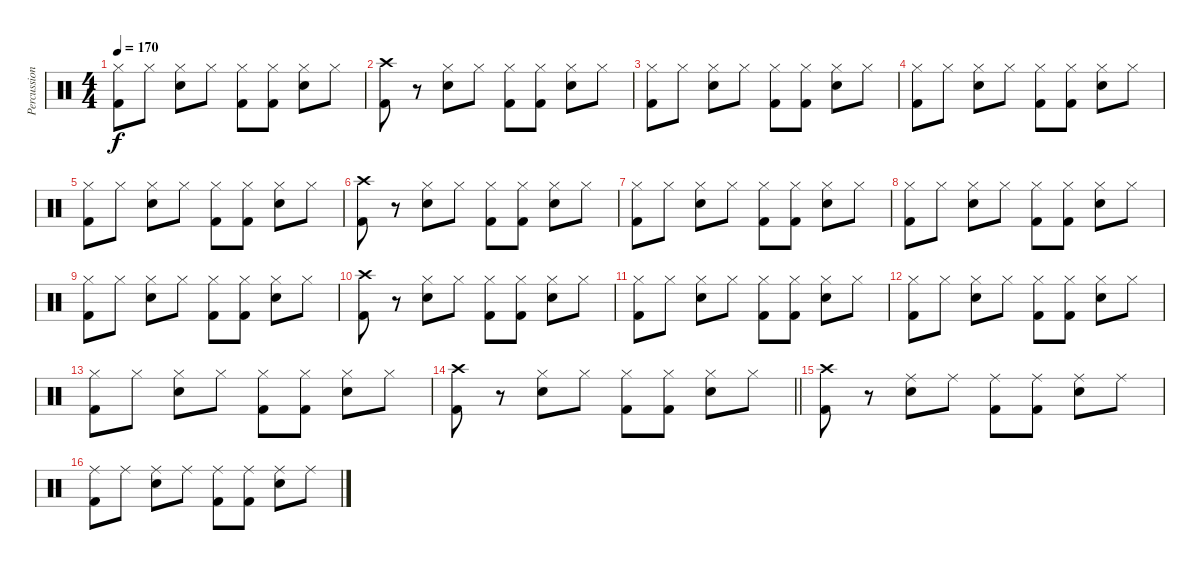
\track ("Percussion" "Percussion") {instrument percussion}
\staff {score}
\articulation defaults
\ts (4 4)
\tempo 170
\clef neutral
\ks c
("Hi-Hat (closed)" "Kick (hit) 2").8{dy f} "Hi-Hat (closed)".8 ("Hi-Hat (closed)" "Snare (hit) 2").8 "Hi-Hat (closed)".8 ("Hi-Hat (closed)" "Kick (hit) 2").8 ("Hi-Hat (closed)" "Kick (hit) 2").8 ("Hi-Hat (closed)" "Snare (hit) 2").8 "Hi-Hat (closed)".8 |
("Crash high (hit)" "Kick (hit) 2").8 r.8 ("Hi-Hat (closed)" "Snare (hit) 2").8 "Hi-Hat (closed)".8 ("Hi-Hat (closed)" "Kick (hit) 2").8 ("Hi-Hat (closed)" "Kick (hit) 2").8 ("Hi-Hat (closed)" "Snare (hit) 2").8 "Hi-Hat (closed)".8 |
("Hi-Hat (closed)" "Kick (hit) 2").8 "Hi-Hat (closed)".8 ("Hi-Hat (closed)" "Snare (hit) 2").8 "Hi-Hat (closed)".8 ("Hi-Hat (closed)" "Kick (hit) 2").8 ("Hi-Hat (closed)" "Kick (hit) 2").8 ("Hi-Hat (closed)" "Snare (hit) 2").8 "Hi-Hat (closed)".8 |
("Hi-Hat (closed)" "Kick (hit) 2").8 "Hi-Hat (closed)".8 ("Hi-Hat (closed)" "Snare (hit) 2").8 "Hi-Hat (closed)".8 ("Hi-Hat (closed)" "Kick (hit) 2").8 ("Hi-Hat (closed)" "Kick (hit) 2").8 ("Hi-Hat (closed)" "Snare (hit) 2").8 "Hi-Hat (closed)".8 |
("Hi-Hat (closed)" "Kick (hit) 2").8 "Hi-Hat (closed)".8 ("Hi-Hat (closed)" "Snare (hit) 2").8 "Hi-Hat (closed)".8 ("Hi-Hat (closed)" "Kick (hit) 2").8 ("Hi-Hat (closed)" "Kick (hit) 2").8 ("Hi-Hat (closed)" "Snare (hit) 2").8 "Hi-Hat (closed)".8 |
("Crash high (hit)" "Kick (hit) 2").8 r.8 ("Hi-Hat (closed)" "Snare (hit) 2").8 "Hi-Hat (closed)".8 ("Hi-Hat (closed)" "Kick (hit) 2").8 ("Hi-Hat (closed)" "Kick (hit) 2").8 ("Hi-Hat (closed)" "Snare (hit) 2").8 "Hi-Hat (closed)".8 |
("Hi-Hat (closed)" "Kick (hit) 2").8 "Hi-Hat (closed)".8 ("Hi-Hat (closed)" "Snare (hit) 2").8 "Hi-Hat (closed)".8 ("Hi-Hat (closed)" "Kick (hit) 2").8 ("Hi-Hat (closed)" "Kick (hit) 2").8 ("Hi-Hat (closed)" "Snare (hit) 2").8 "Hi-Hat (closed)".8 |
("Hi-Hat (closed)" "Kick (hit) 2").8 "Hi-Hat (closed)".8 ("Hi-Hat (closed)" "Snare (hit) 2").8 "Hi-Hat (closed)".8 ("Hi-Hat (closed)" "Kick (hit) 2").8 ("Hi-Hat (closed)" "Kick (hit) 2").8 ("Hi-Hat (closed)" "Snare (hit) 2").8 "Hi-Hat (closed)".8 |
("Hi-Hat (closed)" "Kick (hit) 2").8 "Hi-Hat (closed)".8 ("Hi-Hat (closed)" "Snare (hit) 2").8 "Hi-Hat (closed)".8 ("Hi-Hat (closed)" "Kick (hit) 2").8 ("Hi-Hat (closed)" "Kick (hit) 2").8 ("Hi-Hat (closed)" "Snare (hit) 2").8 "Hi-Hat (closed)".8 |
("Crash high (hit)" "Kick (hit) 2").8 r.8 ("Hi-Hat (closed)" "Snare (hit) 2").8 "Hi-Hat (closed)".8 ("Hi-Hat (closed)" "Kick (hit) 2").8 ("Hi-Hat (closed)" "Kick (hit) 2").8 ("Hi-Hat (closed)" "Snare (hit) 2").8 "Hi-Hat (closed)".8 |
("Hi-Hat (closed)" "Kick (hit) 2").8 "Hi-Hat (closed)".8 ("Hi-Hat (closed)" "Snare (hit) 2").8 "Hi-Hat (closed)".8 ("Hi-Hat (closed)" "Kick (hit) 2").8 ("Hi-Hat (closed)" "Kick (hit) 2").8 ("Hi-Hat (closed)" "Snare (hit) 2").8 "Hi-Hat (closed)".8 |
("Hi-Hat (closed)" "Kick (hit) 2").8 "Hi-Hat (closed)".8 ("Hi-Hat (closed)" "Snare (hit) 2").8 "Hi-Hat (closed)".8 ("Hi-Hat (closed)" "Kick (hit) 2").8 ("Hi-Hat (closed)" "Kick (hit) 2").8 ("Hi-Hat (closed)" "Snare (hit) 2").8 "Hi-Hat (closed)".8 |
("Hi-Hat (closed)" "Kick (hit) 2").8 "Hi-Hat (closed)".8 ("Hi-Hat (closed)" "Snare (hit) 2").8 "Hi-Hat (closed)".8 ("Hi-Hat (closed)" "Kick (hit) 2").8 ("Hi-Hat (closed)" "Kick (hit) 2").8 ("Hi-Hat (closed)" "Snare (hit) 2").8 "Hi-Hat (closed)".8 |
\barLineRight lightlight
("Crash high (hit)" "Kick (hit) 2").8 r.8 ("Hi-Hat (closed)" "Snare (hit) 2").8 "Hi-Hat (closed)".8 ("Hi-Hat (closed)" "Kick (hit) 2").8 ("Hi-Hat (closed)" "Kick (hit) 2").8 ("Hi-Hat (closed)" "Snare (hit) 2").8 "Hi-Hat (closed)".8 |
("Crash high (hit)" "Kick (hit) 2").8 r.8 ("Ride (middle)" "Snare (hit) 2").8 "Ride (middle)".8 ("Ride (middle)" "Kick (hit) 2").8 ("Ride (middle)" "Kick (hit) 2").8 ("Ride (middle)" "Snare (hit) 2").8 "Ride (middle)".8 |
("Ride (middle)" "Kick (hit) 2").8 "Ride (middle)".8 ("Ride (middle)" "Snare (hit) 2").8 "Ride (middle)".8 ("Ride (middle)" "Kick (hit) 2").8 ("Ride (middle)" "Kick (hit) 2").8 ("Ride (middle)" "Snare (hit) 2").8 "Ride (middle)".8
